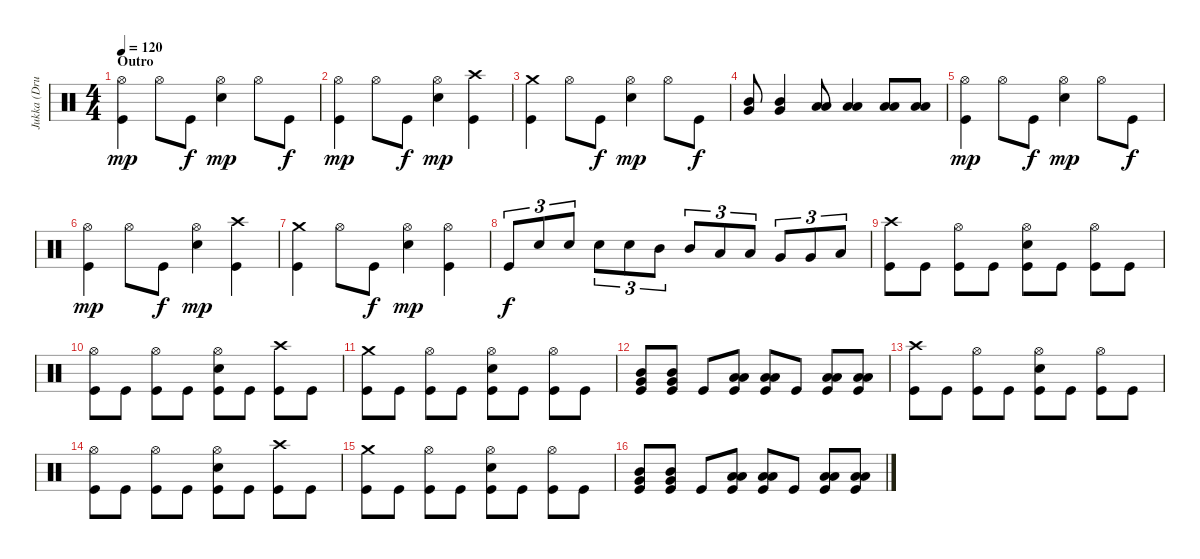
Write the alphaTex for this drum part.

\track ("Jukka (Drums)" "Jukka (Dru") {instrument percussion}
\staff {score}
\articulation defaults
\ts (4 4)
\section ("" "Outro")
\tempo 120
\clef neutral
\ks c
("Hi-Hat (open)" "Kick (hit)").4{dy mp} "Hi-Hat (open)".8 "Kick (hit)".8{dy f} ("Hi-Hat (open)" "Electric Snare (hit)").4{dy mp} "Hi-Hat (open)".8 "Kick (hit)".8{dy f} |
("Hi-Hat (open)" "Kick (hit)").4{dy mp} "Hi-Hat (open)".8 "Kick (hit)".8{dy f} ("Hi-Hat (open)" "Electric Snare (hit)").4{dy mp} ("Crash high (hit)" "Kick (hit)").4 |
("Crash medium (hit)" "Kick (hit)").4 "Hi-Hat (open)".8 "Kick (hit)".8{dy f} ("Hi-Hat (open)" "Electric Snare (hit)").4{dy mp} "Hi-Hat (open)".8 "Kick (hit)".8{dy f} |
("Mid Tom (hit)" "Very Low Tom (hit)").8 ("Mid Tom (hit)" "Very Low Tom (hit)").4 ("Low Tom (hit)" "Low Floor Tom (hit)").8 ("Low Tom (hit)" "Low Floor Tom (hit)").4 ("Low Tom (hit)" "Low Floor Tom (hit)").8 ("Low Tom (hit)" "Low Floor Tom (hit)").8 |
("Hi-Hat (open)" "Kick (hit)").4{dy mp} "Hi-Hat (open)".8 "Kick (hit)".8{dy f} ("Hi-Hat (open)" "Electric Snare (hit)").4{dy mp} "Hi-Hat (open)".8 "Kick (hit)".8{dy f} |
("Hi-Hat (open)" "Kick (hit)").4{dy mp} "Hi-Hat (open)".8 "Kick (hit)".8{dy f} ("Hi-Hat (open)" "Electric Snare (hit)").4{dy mp} ("Crash high (hit)" "Kick (hit)").4 |
("Crash medium (hit)" "Kick (hit)").4 "Hi-Hat (open)".8 "Kick (hit)".8{dy f} ("Hi-Hat (open)" "Electric Snare (hit)").4{dy mp} ("Hi-Hat (open)" "Kick (hit)").4 |
"Kick (hit)".8{tu (3 2) dy f} "Electric Snare (hit)".8{tu (3 2)} "Electric Snare (hit)".8{tu (3 2)} "Electric Snare (hit)".8{tu (3 2)} "Electric Snare (hit)".8{tu (3 2)} "Mid Tom (hit)".8{tu (3 2)} "Mid Tom (hit)".8{tu (3 2)} "Low Tom (hit)".8{tu (3 2) balance 14} "Low Tom (hit)".8{tu (3 2) balance 14} "Very Low Tom (hit)".8{tu (3 2) balance 2} "Very Low Tom (hit)".8{tu (3 2) balance 2} "Low Floor Tom (hit)".8{tu (3 2)} |
("Crash high (hit)" "Kick (hit)").8 "Kick (hit)".8 ("Hi-Hat (open)" "Kick (hit)").8 "Kick (hit)".8 ("Hi-Hat (open)" "Electric Snare (hit)" "Kick (hit)").8 "Kick (hit)".8 ("Hi-Hat (open)" "Kick (hit)").8 "Kick (hit)".8 |
("Hi-Hat (open)" "Kick (hit)").8 "Kick (hit)".8 ("Hi-Hat (open)" "Kick (hit)").8 "Kick (hit)".8 ("Hi-Hat (open)" "Electric Snare (hit)" "Kick (hit)").8 "Kick (hit)".8 ("Crash high (hit)" "Kick (hit)").8 "Kick (hit)".8 |
("Crash medium (hit)" "Kick (hit)").8 "Kick (hit)".8 ("Hi-Hat (open)" "Kick (hit)").8 "Kick (hit)".8 ("Hi-Hat (open)" "Electric Snare (hit)" "Kick (hit)").8 "Kick (hit)".8 ("Hi-Hat (open)" "Kick (hit)").8 "Kick (hit)".8 |
("Mid Tom (hit)" "Very Low Tom (hit)" "Kick (hit)").8 ("Mid Tom (hit)" "Very Low Tom (hit)" "Kick (hit)").8 "Kick (hit)".8 ("Low Tom (hit)" "Low Floor Tom (hit)" "Kick (hit)").8 ("Low Tom (hit)" "Low Floor Tom (hit)" "Kick (hit)").8 "Kick (hit)".8 ("Low Tom (hit)" "Low Floor Tom (hit)" "Kick (hit)").8 ("Low Tom (hit)" "Low Floor Tom (hit)" "Kick (hit)").8 |
("Crash high (hit)" "Kick (hit)").8 "Kick (hit)".8 ("Hi-Hat (open)" "Kick (hit)").8 "Kick (hit)".8 ("Hi-Hat (open)" "Electric Snare (hit)" "Kick (hit)").8 "Kick (hit)".8 ("Hi-Hat (open)" "Kick (hit)").8 "Kick (hit)".8 |
("Hi-Hat (open)" "Kick (hit)").8 "Kick (hit)".8 ("Hi-Hat (open)" "Kick (hit)").8 "Kick (hit)".8 ("Hi-Hat (open)" "Electric Snare (hit)" "Kick (hit)").8 "Kick (hit)".8 ("Crash high (hit)" "Kick (hit)").8 "Kick (hit)".8 |
("Crash medium (hit)" "Kick (hit)").8 "Kick (hit)".8 ("Hi-Hat (open)" "Kick (hit)").8 "Kick (hit)".8 ("Hi-Hat (open)" "Electric Snare (hit)" "Kick (hit)").8 "Kick (hit)".8 ("Hi-Hat (open)" "Kick (hit)").8 "Kick (hit)".8 |
("Mid Tom (hit)" "Very Low Tom (hit)" "Kick (hit)").8 ("Mid Tom (hit)" "Very Low Tom (hit)" "Kick (hit)").8 "Kick (hit)".8 ("Low Tom (hit)" "Low Floor Tom (hit)" "Kick (hit)").8 ("Low Tom (hit)" "Low Floor Tom (hit)" "Kick (hit)").8 "Kick (hit)".8 ("Low Tom (hit)" "Low Floor Tom (hit)" "Kick (hit)").8 ("Low Tom (hit)" "Low Floor Tom (hit)" "Kick (hit)").8
